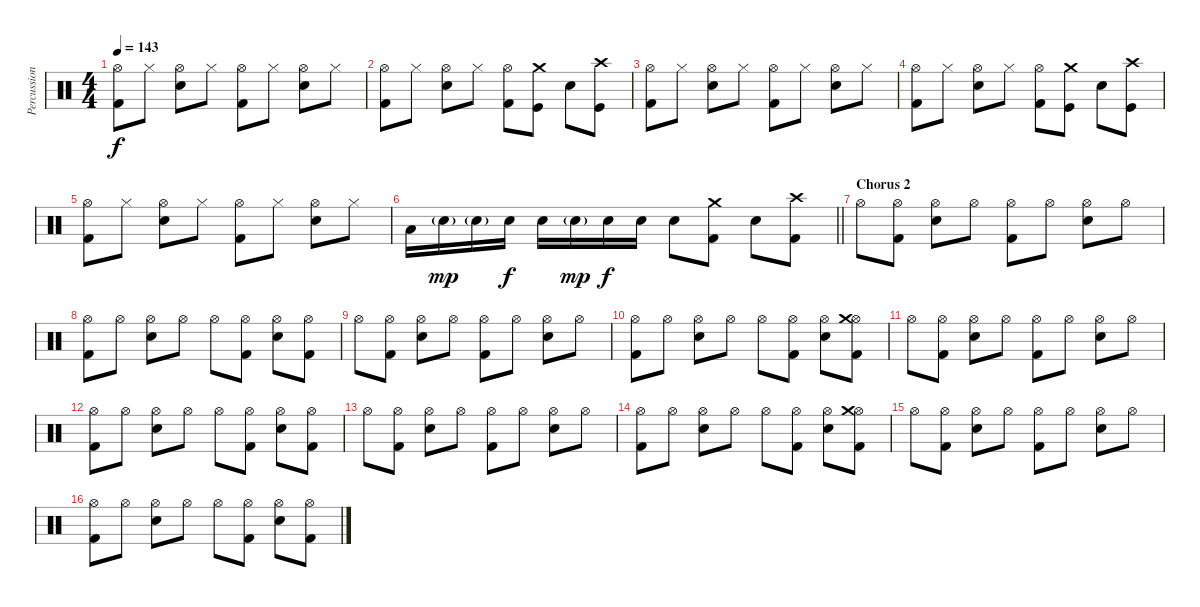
\track ("Percussion" "Percussion") {instrument percussion}
\staff {score}
\articulation defaults
\ts (4 4)
\tempo 143
\clef neutral
\ks c
("Hi-Hat (open)" "Kick (hit) 2").8{dy f} "Hi-Hat (closed)".8 ("Hi-Hat (open)" "Snare (hit) 2").8 "Hi-Hat (closed)".8 ("Hi-Hat (open)" "Kick (hit) 2").8 "Hi-Hat (closed)".8 ("Hi-Hat (open)" "Snare (hit) 2").8 "Hi-Hat (closed)".8 |
("Hi-Hat (open)" "Kick (hit) 2").8 "Hi-Hat (closed)".8 ("Hi-Hat (open)" "Snare (hit) 2").8 "Hi-Hat (closed)".8 ("Hi-Hat (open)" "Kick (hit) 2").8 ("Crash medium (hit)" "Kick (hit)").8 "Snare (hit) 2".8 ("Crash high (hit)" "Kick (hit)").8 |
("Hi-Hat (open)" "Kick (hit) 2").8 "Hi-Hat (closed)".8 ("Hi-Hat (open)" "Snare (hit) 2").8 "Hi-Hat (closed)".8 ("Hi-Hat (open)" "Kick (hit) 2").8 "Hi-Hat (closed)".8 ("Hi-Hat (open)" "Snare (hit) 2").8 "Hi-Hat (closed)".8 |
("Hi-Hat (open)" "Kick (hit) 2").8 "Hi-Hat (closed)".8 ("Hi-Hat (open)" "Snare (hit) 2").8 "Hi-Hat (closed)".8 ("Hi-Hat (open)" "Kick (hit) 2").8 ("Crash medium (hit)" "Kick (hit)").8 "Snare (hit) 2".8 ("Crash high (hit)" "Kick (hit)").8 |
("Hi-Hat (open)" "Kick (hit) 2").8 "Hi-Hat (closed)".8 ("Hi-Hat (open)" "Snare (hit) 2").8 "Hi-Hat (closed)".8 ("Hi-Hat (open)" "Kick (hit) 2").8 "Hi-Hat (closed)".8 ("Hi-Hat (open)" "Snare (hit) 2").8 "Hi-Hat (closed)".8 |
\barLineRight lightlight "Low Tom (hit)".16 "Snare (hit) 2"{g}.16{dy mp} "Snare (hit) 2"{g}.16 "Snare (hit) 2".16{dy f} "Snare (hit) 2".16 "Snare (hit) 2"{g}.16{dy mp} "Snare (hit) 2".16{dy f} "Snare (hit) 2".16 "Snare (hit) 2".8
("Crash medium (hit)" "Kick (hit) 2").8 "Snare (hit) 2".8 ("Crash high (hit)" "Kick (hit) 2").8 |
\section ("" "Chorus 2")
"Hi-Hat (open)".8 ("Hi-Hat (open)" "Kick (hit) 2").8 ("Hi-Hat (open)" "Snare (hit) 2").8 "Hi-Hat (open)".8 ("Hi-Hat (open)" "Kick (hit) 2").8 "Hi-Hat (open)".8 ("Hi-Hat (open)" "Snare (hit) 2").8 "Hi-Hat (open)".8 |
("Hi-Hat (open)" "Kick (hit) 2").8 "Hi-Hat (open)".8 ("Hi-Hat (open)" "Snare (hit) 2").8 "Hi-Hat (open)".8 "Hi-Hat (open)".8 ("Hi-Hat (open)" "Kick (hit) 2").8 ("Hi-Hat (open)" "Snare (hit) 2").8 ("Hi-Hat (open)" "Kick (hit) 2").8 |
"Hi-Hat (open)".8 ("Hi-Hat (open)" "Kick (hit) 2").8 ("Hi-Hat (open)" "Snare (hit) 2").8 "Hi-Hat (open)".8 ("Hi-Hat (open)" "Kick (hit) 2").8 "Hi-Hat (open)".8 ("Hi-Hat (open)" "Snare (hit) 2").8 "Hi-Hat (open)".8 |
("Hi-Hat (open)" "Kick (hit) 2").8 "Hi-Hat (open)".8 ("Hi-Hat (open)" "Snare (hit) 2").8 "Hi-Hat (open)".8 "Hi-Hat (open)".8 ("Hi-Hat (open)" "Kick (hit) 2").8 ("Hi-Hat (open)" "Snare (hit) 2").8 ("Hi-Hat (open)" "Crash medium (hit)" "Kick (hit) 2").8 |
"Hi-Hat (open)".8 ("Hi-Hat (open)" "Kick (hit) 2").8 ("Hi-Hat (open)" "Snare (hit) 2").8 "Hi-Hat (open)".8 ("Hi-Hat (open)" "Kick (hit) 2").8 "Hi-Hat (open)".8 ("Hi-Hat (open)" "Snare (hit) 2").8 "Hi-Hat (open)".8 |
("Hi-Hat (open)" "Kick (hit) 2").8 "Hi-Hat (open)".8 ("Hi-Hat (open)" "Snare (hit) 2").8 "Hi-Hat (open)".8 "Hi-Hat (open)".8 ("Hi-Hat (open)" "Kick (hit) 2").8 ("Hi-Hat (open)" "Snare (hit) 2").8 ("Hi-Hat (open)" "Kick (hit) 2").8 |
"Hi-Hat (open)".8 ("Hi-Hat (open)" "Kick (hit) 2").8 ("Hi-Hat (open)" "Snare (hit) 2").8 "Hi-Hat (open)".8 ("Hi-Hat (open)" "Kick (hit) 2").8 "Hi-Hat (open)".8 ("Hi-Hat (open)" "Snare (hit) 2").8 "Hi-Hat (open)".8 |
("Hi-Hat (open)" "Kick (hit) 2").8 "Hi-Hat (open)".8 ("Hi-Hat (open)" "Snare (hit) 2").8 "Hi-Hat (open)".8 "Hi-Hat (open)".8 ("Hi-Hat (open)" "Kick (hit) 2").8 ("Hi-Hat (open)" "Snare (hit) 2").8 ("Hi-Hat (open)" "Crash medium (hit)" "Kick (hit) 2").8 |
"Hi-Hat (open)".8 ("Hi-Hat (open)" "Kick (hit) 2").8 ("Hi-Hat (open)" "Snare (hit) 2").8 "Hi-Hat (open)".8 ("Hi-Hat (open)" "Kick (hit) 2").8 "Hi-Hat (open)".8 ("Hi-Hat (open)" "Snare (hit) 2").8 "Hi-Hat (open)".8 |
("Hi-Hat (open)" "Kick (hit) 2").8 "Hi-Hat (open)".8 ("Hi-Hat (open)" "Snare (hit) 2").8 "Hi-Hat (open)".8 "Hi-Hat (open)".8 ("Hi-Hat (open)" "Kick (hit) 2").8 ("Hi-Hat (open)" "Snare (hit) 2").8 ("Hi-Hat (open)" "Kick (hit) 2").8
